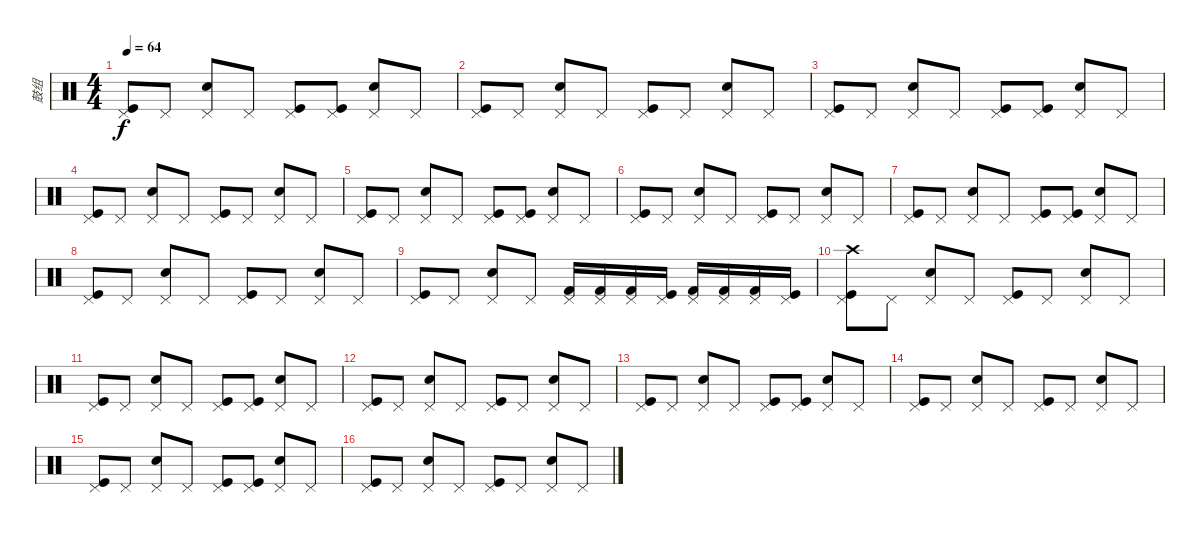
\track ("鼓组" "鼓组") {instrument percussion}
\staff {score}
\articulation defaults
\ts (4 4)
\tempo 64
\clef neutral
\ks c
("Kick (hit)" "Pedal Hi-Hat (hit)").8{dy f} "Pedal Hi-Hat (hit)".8 ("Snare (hit) 2" "Pedal Hi-Hat (hit)").8 "Pedal Hi-Hat (hit)".8 ("Kick (hit)" "Pedal Hi-Hat (hit)").8 ("Kick (hit)" "Pedal Hi-Hat (hit)").8 ("Snare (hit) 2" "Pedal Hi-Hat (hit)").8 "Pedal Hi-Hat (hit)".8 |
("Kick (hit)" "Pedal Hi-Hat (hit)").8 "Pedal Hi-Hat (hit)".8 ("Snare (hit) 2" "Pedal Hi-Hat (hit)").8 "Pedal Hi-Hat (hit)".8 ("Kick (hit)" "Pedal Hi-Hat (hit)").8 "Pedal Hi-Hat (hit)".8 ("Snare (hit) 2" "Pedal Hi-Hat (hit)").8 "Pedal Hi-Hat (hit)".8 |
("Kick (hit)" "Pedal Hi-Hat (hit)").8 "Pedal Hi-Hat (hit)".8 ("Snare (hit) 2" "Pedal Hi-Hat (hit)").8 "Pedal Hi-Hat (hit)".8 ("Kick (hit)" "Pedal Hi-Hat (hit)").8 ("Kick (hit)" "Pedal Hi-Hat (hit)").8 ("Snare (hit) 2" "Pedal Hi-Hat (hit)").8 "Pedal Hi-Hat (hit)".8 |
("Kick (hit)" "Pedal Hi-Hat (hit)").8 "Pedal Hi-Hat (hit)".8 ("Snare (hit) 2" "Pedal Hi-Hat (hit)").8 "Pedal Hi-Hat (hit)".8 ("Kick (hit)" "Pedal Hi-Hat (hit)").8 "Pedal Hi-Hat (hit)".8 ("Snare (hit) 2" "Pedal Hi-Hat (hit)").8 "Pedal Hi-Hat (hit)".8 |
("Kick (hit)" "Pedal Hi-Hat (hit)").8 "Pedal Hi-Hat (hit)".8 ("Snare (hit) 2" "Pedal Hi-Hat (hit)").8 "Pedal Hi-Hat (hit)".8 ("Kick (hit)" "Pedal Hi-Hat (hit)").8 ("Kick (hit)" "Pedal Hi-Hat (hit)").8 ("Snare (hit) 2" "Pedal Hi-Hat (hit)").8 "Pedal Hi-Hat (hit)".8 |
("Kick (hit)" "Pedal Hi-Hat (hit)").8 "Pedal Hi-Hat (hit)".8 ("Snare (hit) 2" "Pedal Hi-Hat (hit)").8 "Pedal Hi-Hat (hit)".8 ("Kick (hit)" "Pedal Hi-Hat (hit)").8 "Pedal Hi-Hat (hit)".8 ("Snare (hit) 2" "Pedal Hi-Hat (hit)").8 "Pedal Hi-Hat (hit)".8 |
("Kick (hit)" "Pedal Hi-Hat (hit)").8 "Pedal Hi-Hat (hit)".8 ("Snare (hit) 2" "Pedal Hi-Hat (hit)").8 "Pedal Hi-Hat (hit)".8 ("Kick (hit)" "Pedal Hi-Hat (hit)").8 ("Kick (hit)" "Pedal Hi-Hat (hit)").8 ("Snare (hit) 2" "Pedal Hi-Hat (hit)").8 "Pedal Hi-Hat (hit)".8 |
("Kick (hit)" "Pedal Hi-Hat (hit)").8 "Pedal Hi-Hat (hit)".8 ("Snare (hit) 2" "Pedal Hi-Hat (hit)").8 "Pedal Hi-Hat (hit)".8 ("Kick (hit)" "Pedal Hi-Hat (hit)").8 "Pedal Hi-Hat (hit)".8 ("Snare (hit) 2" "Pedal Hi-Hat (hit)").8 "Pedal Hi-Hat (hit)".8 |
("Kick (hit)" "Pedal Hi-Hat (hit)").8 "Pedal Hi-Hat (hit)".8 ("Snare (hit) 2" "Pedal Hi-Hat (hit)").8 "Pedal Hi-Hat (hit)".8 ("Kick (hit) 2" "Pedal Hi-Hat (hit)").16 ("Kick (hit) 2" "Pedal Hi-Hat (hit)").16 ("Kick (hit) 2" "Pedal Hi-Hat (hit)").16 ("Kick (hit)" "Pedal Hi-Hat (hit)").16 ("Kick (hit) 2" "Pedal Hi-Hat (hit)").16 ("Kick (hit) 2" "Pedal Hi-Hat (hit)").16 ("Kick (hit) 2" "Pedal Hi-Hat (hit)").16 ("Kick (hit)" "Pedal Hi-Hat (hit)").16 |
("Kick (hit)" "Pedal Hi-Hat (hit)" "Crash high (hit)").8 "Pedal Hi-Hat (hit)".8 ("Snare (hit) 2" "Pedal Hi-Hat (hit)").8 "Pedal Hi-Hat (hit)".8 ("Kick (hit)" "Pedal Hi-Hat (hit)").8 "Pedal Hi-Hat (hit)".8 ("Snare (hit) 2" "Pedal Hi-Hat (hit)").8 "Pedal Hi-Hat (hit)".8 |
("Kick (hit)" "Pedal Hi-Hat (hit)").8 "Pedal Hi-Hat (hit)".8 ("Snare (hit) 2" "Pedal Hi-Hat (hit)").8 "Pedal Hi-Hat (hit)".8 ("Kick (hit)" "Pedal Hi-Hat (hit)").8 ("Kick (hit)" "Pedal Hi-Hat (hit)").8 ("Snare (hit) 2" "Pedal Hi-Hat (hit)").8 "Pedal Hi-Hat (hit)".8 |
("Kick (hit)" "Pedal Hi-Hat (hit)").8 "Pedal Hi-Hat (hit)".8 ("Snare (hit) 2" "Pedal Hi-Hat (hit)").8 "Pedal Hi-Hat (hit)".8 ("Kick (hit)" "Pedal Hi-Hat (hit)").8 "Pedal Hi-Hat (hit)".8 ("Snare (hit) 2" "Pedal Hi-Hat (hit)").8 "Pedal Hi-Hat (hit)".8 |
("Kick (hit)" "Pedal Hi-Hat (hit)").8 "Pedal Hi-Hat (hit)".8 ("Snare (hit) 2" "Pedal Hi-Hat (hit)").8 "Pedal Hi-Hat (hit)".8 ("Kick (hit)" "Pedal Hi-Hat (hit)").8 ("Kick (hit)" "Pedal Hi-Hat (hit)").8 ("Snare (hit) 2" "Pedal Hi-Hat (hit)").8 "Pedal Hi-Hat (hit)".8 |
("Kick (hit)" "Pedal Hi-Hat (hit)").8 "Pedal Hi-Hat (hit)".8 ("Snare (hit) 2" "Pedal Hi-Hat (hit)").8 "Pedal Hi-Hat (hit)".8 ("Kick (hit)" "Pedal Hi-Hat (hit)").8 "Pedal Hi-Hat (hit)".8 ("Snare (hit) 2" "Pedal Hi-Hat (hit)").8 "Pedal Hi-Hat (hit)".8 |
("Kick (hit)" "Pedal Hi-Hat (hit)").8 "Pedal Hi-Hat (hit)".8 ("Snare (hit) 2" "Pedal Hi-Hat (hit)").8 "Pedal Hi-Hat (hit)".8 ("Kick (hit)" "Pedal Hi-Hat (hit)").8 ("Kick (hit)" "Pedal Hi-Hat (hit)").8 ("Snare (hit) 2" "Pedal Hi-Hat (hit)").8 "Pedal Hi-Hat (hit)".8 |
("Kick (hit)" "Pedal Hi-Hat (hit)").8 "Pedal Hi-Hat (hit)".8 ("Snare (hit) 2" "Pedal Hi-Hat (hit)").8 "Pedal Hi-Hat (hit)".8 ("Kick (hit)" "Pedal Hi-Hat (hit)").8 "Pedal Hi-Hat (hit)".8 ("Snare (hit) 2" "Pedal Hi-Hat (hit)").8 "Pedal Hi-Hat (hit)".8
